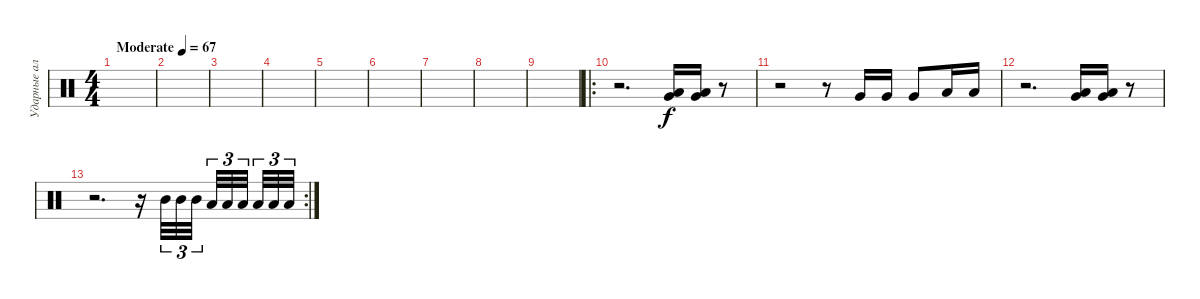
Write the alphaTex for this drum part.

\track ("Ударные альты" "Ударные ал") {instrument percussion}
\staff {score}
\articulation defaults
\ts (4 4)
\tempo (67 "Moderate")
\clef neutral
\ks c
|
|
|
|
|
|
|
|
|
\ro
r.2{d} ("Very Low Tom (hit)" "Low Floor Tom (hit)").16 ("Very Low Tom (hit)" "Low Floor Tom (hit)").16 r.8 |
r.2 r.8 "Very Low Tom (hit)".16 "Very Low Tom (hit)".16 "Very Low Tom (hit)".8 "Low Floor Tom (hit)".16 "Low Floor Tom (hit)".16 |
r.2{d} ("Very Low Tom (hit)" "Low Floor Tom (hit)").16 ("Very Low Tom (hit)" "Low Floor Tom (hit)").16 r.8 |
\rc 2
r.2{d} r.16 "Mid Tom (hit)".32{tu (3 2)} "Mid Tom (hit)".32{tu (3 2)} "Mid Tom (hit)".32{tu (3 2) beam splitsecondary} "Low Tom (hit)".32{tu (3 2)} "Low Tom (hit)".32{tu (3 2)} "Low Tom (hit)".32{tu (3 2) beam splitsecondary} "Low Floor Tom (hit)".32{tu (3 2)} "Low Floor Tom (hit)".32{tu (3 2)} "Low Floor Tom (hit)".32{tu (3 2)}
